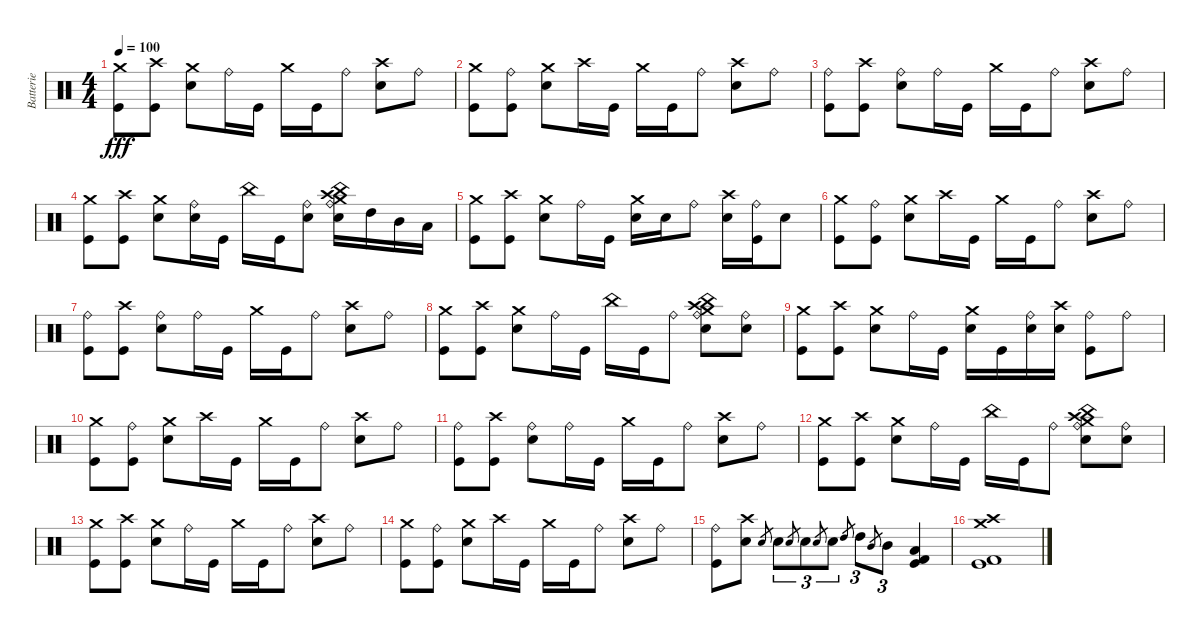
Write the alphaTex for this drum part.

\track ("Batterie" "Batterie") {instrument percussion}
\staff {score}
\articulation defaults
\ts (4 4)
\tempo 100
\clef neutral
\ks c
("Crash medium (hit)" "Kick (hit)").8{dy fff} ("Crash high (hit)" "Kick (hit)").8 ("Crash medium (hit)" "Electric Snare (hit)").8 "Ride (bell)".16 "Kick (hit)".16 "Crash medium (hit)".16 "Kick (hit)".16 "Ride (bell)".8 ("Crash high (hit)" "Electric Snare (hit)").8 "Ride (bell)".8 |
("Crash medium (hit)" "Kick (hit)").8 ("Ride (bell)" "Kick (hit)").8 ("Crash medium (hit)" "Electric Snare (hit)").8 "Crash high (hit)".16 "Kick (hit)".16 "Crash medium (hit)".16 "Kick (hit)".16 "Ride (bell)".8 ("Crash high (hit)" "Electric Snare (hit)").8 "Ride (bell)".8 |
("Ride (bell)" "Kick (hit)").8 ("Crash high (hit)" "Kick (hit)").8 ("Ride (bell)" "Electric Snare (hit)").8 "Ride (bell)".16 "Kick (hit)".16 "Crash medium (hit)".16 "Kick (hit)".16 "Ride (bell)".8 ("Crash high (hit)" "Electric Snare (hit)").8 "Ride (bell)".8 |
("Crash medium (hit)" "Kick (hit)").8 ("Crash high (hit)" "Kick (hit)").8 ("Crash medium (hit)" "Electric Snare (hit)").8 ("Ride (bell)" "Electric Snare (hit)").16 "Kick (hit)".16 "China (hit)".16 "Kick (hit)".16 ("Ride (bell)" "Electric Snare (hit)").8 ("China (hit)" "Electric Snare (hit)" "Crash high (hit)" "Crash medium (hit)" "Ride (bell)").16 "High Tom (hit)".16 "Mid Tom (hit)".16 "Low Floor Tom (hit)".16 |
("Crash medium (hit)" "Kick (hit)").8 ("Crash high (hit)" "Kick (hit)").8 ("Crash medium (hit)" "Electric Snare (hit)").8 "Ride (bell)".16 "Kick (hit)".16 ("Crash medium (hit)" "Electric Snare (hit)").16 "Electric Snare (hit)".16 "Ride (bell)".8 ("Crash high (hit)" "Electric Snare (hit)").16 ("Ride (bell)" "Kick (hit)").16 "Electric Snare (hit)".8 |
("Crash medium (hit)" "Kick (hit)").8 ("Ride (bell)" "Kick (hit)").8 ("Crash medium (hit)" "Electric Snare (hit)").8 "Crash high (hit)".16 "Kick (hit)".16 "Crash medium (hit)".16 "Kick (hit)".16 "Ride (bell)".8 ("Crash high (hit)" "Electric Snare (hit)").8 "Ride (bell)".8 |
("Ride (bell)" "Kick (hit)").8 ("Crash high (hit)" "Kick (hit)").8 ("Ride (bell)" "Electric Snare (hit)").8 "Ride (bell)".16 "Kick (hit)".16 "Crash medium (hit)".16 "Kick (hit)".16 "Ride (bell)".8 ("Crash high (hit)" "Electric Snare (hit)").8 "Ride (bell)".8 |
("Crash medium (hit)" "Kick (hit)").8 ("Crash high (hit)" "Kick (hit)").8 ("Crash medium (hit)" "Electric Snare (hit)").8 "Ride (bell)".16 "Kick (hit)".16 "China (hit)".16 "Kick (hit)".16 "Ride (bell)".8 ("China (hit)" "Electric Snare (hit)" "Crash high (hit)" "Crash medium (hit)" "Ride (bell)").8 ("Ride (bell)" "Electric Snare (hit)").8 |
("Crash medium (hit)" "Kick (hit)").8 ("Crash high (hit)" "Kick (hit)").8 ("Crash medium (hit)" "Electric Snare (hit)").8 "Ride (bell)".16 "Kick (hit)".16 ("Crash medium (hit)" "Electric Snare (hit)").16 "Kick (hit)".16 ("Ride (bell)" "Electric Snare (hit)").16 ("Crash high (hit)" "Electric Snare (hit)").16 ("Ride (bell)" "Kick (hit)").8 "Ride (bell)".8 |
("Crash medium (hit)" "Kick (hit)").8 ("Ride (bell)" "Kick (hit)").8 ("Crash medium (hit)" "Electric Snare (hit)").8 "Crash high (hit)".16 "Kick (hit)".16 "Crash medium (hit)".16 "Kick (hit)".16 "Ride (bell)".8 ("Crash high (hit)" "Electric Snare (hit)").8 "Ride (bell)".8 |
("Ride (bell)" "Kick (hit)").8 ("Crash high (hit)" "Kick (hit)").8 ("Ride (bell)" "Electric Snare (hit)").8 "Ride (bell)".16 "Kick (hit)".16 "Crash medium (hit)".16 "Kick (hit)".16 "Ride (bell)".8 ("Crash high (hit)" "Electric Snare (hit)").8 "Ride (bell)".8 |
("Crash medium (hit)" "Kick (hit)").8 ("Crash high (hit)" "Kick (hit)").8 ("Crash medium (hit)" "Electric Snare (hit)").8 "Ride (bell)".16 "Kick (hit)".16 "China (hit)".16 "Kick (hit)".16 "Ride (bell)".8 ("China (hit)" "Electric Snare (hit)" "Crash high (hit)" "Crash medium (hit)" "Ride (bell)").8 ("Ride (bell)" "Electric Snare (hit)").8 |
("Crash medium (hit)" "Kick (hit)").8 ("Crash high (hit)" "Kick (hit)").8 ("Crash medium (hit)" "Electric Snare (hit)").8 "Ride (bell)".16 "Kick (hit)".16 "Crash medium (hit)".16 "Kick (hit)".16 "Ride (bell)".8 ("Crash high (hit)" "Electric Snare (hit)").8 "Ride (bell)".8 |
("Crash medium (hit)" "Kick (hit)").8 ("Ride (bell)" "Kick (hit)").8 ("Crash medium (hit)" "Electric Snare (hit)").8 "Crash high (hit)".16 "Kick (hit)".16 "Crash medium (hit)".16 "Kick (hit)".16 "Ride (bell)".8 ("Crash high (hit)" "Electric Snare (hit)").8 "Ride (bell)".8 |
("Ride (bell)" "Kick (hit)").8 ("Crash high (hit)" "Electric Snare (hit)").8 "Electric Snare (hit)".8{gr} "Electric Snare (hit)".8{tu (3 2)} "Electric Snare (hit)".8{gr} "Electric Snare (hit)".8{tu (3 2)} "Electric Snare (hit)".8{gr} "Electric Snare (hit)".8{tu (3 2)} "High Tom (hit)".8{gr} "High Tom (hit)".8{tu (3 2)} "Mid Tom (hit)".8{gr} "Mid Tom (hit)".8{tu (3 2)} ("Low Floor Tom (hit)" "Kick (hit)" "Kick (hit) 2").4 |
("Crash high (hit)" "Crash medium (hit)" "Kick (hit)" "Kick (hit) 2").1
